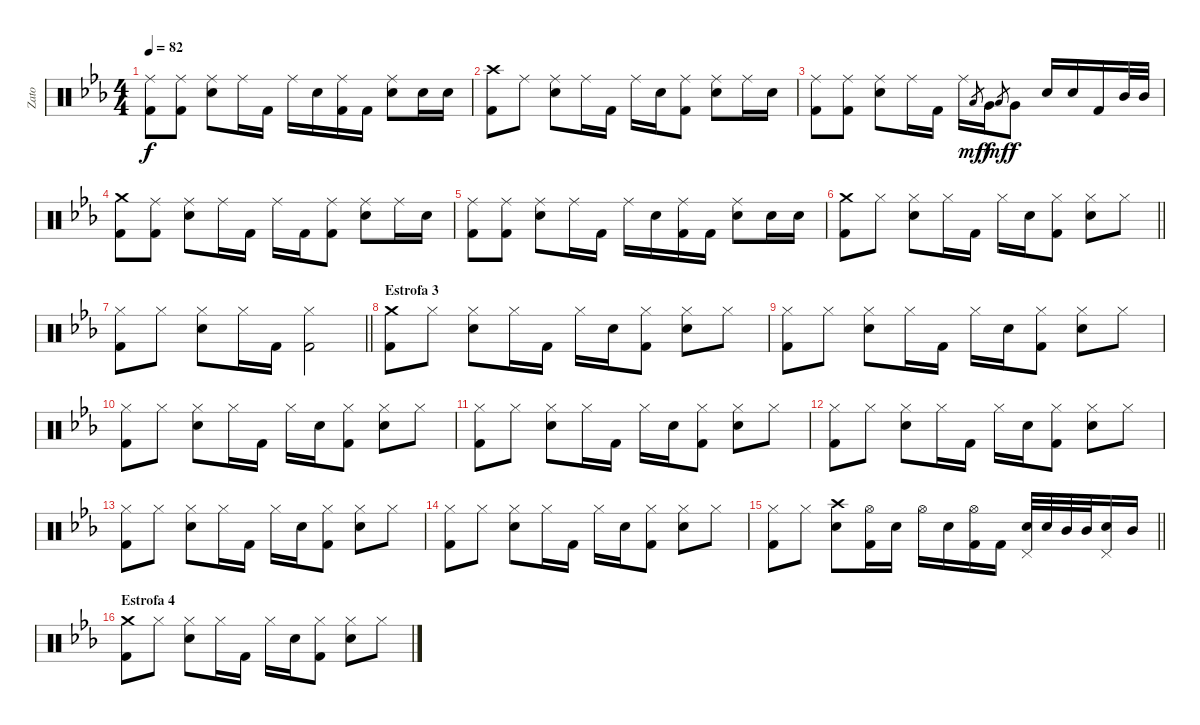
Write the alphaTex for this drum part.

\track ("Zato" "Zato") {instrument percussion}
\staff {score}
\articulation defaults
\ts (4 4)
\tempo 82
\clef neutral
\ks cminor
("Ride (middle)" "Kick (hit) 2").8{dy f} ("Ride (middle)" "Kick (hit) 2").8 ("Ride (middle)" "Electric Snare (hit)").8 "Ride (middle)".16 "Kick (hit) 2".16 "Ride (middle)".16 "Electric Snare (hit)".16 ("Ride (middle)" "Kick (hit) 2").16 "Kick (hit) 2".16 ("Ride (middle)" "Electric Snare (hit)").8 "Electric Snare (hit)".16 "Electric Snare (hit)".16 |
("Crash high (hit)" "Kick (hit) 2").8 "Ride (middle)".8 ("Ride (middle)" "Electric Snare (hit)").8 "Ride (middle)".16 "Kick (hit) 2".16 "Ride (middle)".16 "Electric Snare (hit)".16 ("Ride (middle)" "Kick (hit) 2").8 ("Ride (middle)" "Electric Snare (hit)").8 "Ride (middle)".16 "Electric Snare (hit)".16 |
("Ride (middle)" "Kick (hit) 2").8 ("Ride (middle)" "Kick (hit) 2").8 ("Ride (middle)" "Electric Snare (hit)").8 "Ride (middle)".16 "Kick (hit) 2".16 "Ride (middle)".16 "Low Tom (hit)".8{gr dy mf} "Very Low Tom (hit)".16{dy f} "Low Tom (hit)".8{gr dy mf} "Very Low Tom (hit)".8{dy f} "Electric Snare (hit)".16 "Electric Snare (hit)".16 "Kick (hit) 2".16 "Mid Tom (hit)".32 "Mid Tom (hit)".32 |
("Crash medium (hit)" "Kick (hit) 2").8 ("Ride (middle)" "Kick (hit) 2").8 ("Ride (middle)" "Electric Snare (hit)").8 "Ride (middle)".16 "Kick (hit) 2".16 "Ride (middle)".16 "Kick (hit) 2".16 ("Ride (middle)" "Kick (hit) 2").8 ("Ride (middle)" "Electric Snare (hit)").8 "Ride (middle)".16 "Electric Snare (hit)".16 |
("Ride (middle)" "Kick (hit) 2").8 ("Ride (middle)" "Kick (hit) 2").8 ("Ride (middle)" "Electric Snare (hit)").8 "Ride (middle)".16 "Kick (hit) 2".16 "Ride (middle)".16 "Electric Snare (hit)".16 ("Ride (middle)" "Kick (hit) 2").16 "Kick (hit) 2".16 ("Ride (middle)" "Electric Snare (hit)").8 "Electric Snare (hit)".16 "Electric Snare (hit)".16 |
\barLineRight lightlight
("Crash medium (hit)" "Kick (hit) 2").8{volume 13} "Hi-Hat (closed)".8 ("Hi-Hat (closed)" "Electric Snare (hit)").8 "Hi-Hat (closed)".16 "Kick (hit) 2".16 "Hi-Hat (closed)".16 "Electric Snare (hit)".16 ("Hi-Hat (closed)" "Kick (hit) 2").8 ("Hi-Hat (closed)" "Electric Snare (hit)").8 "Hi-Hat (closed)".8 |
\barLineRight lightlight
("Hi-Hat (closed)" "Kick (hit) 2").8 "Hi-Hat (closed)".8 ("Hi-Hat (closed)" "Electric Snare (hit)").8 "Hi-Hat (closed)".16 "Kick (hit) 2".16 ("Hi-Hat (closed)" "Kick (hit) 2").2 |
\section ("" "Estrofa 3")
("Crash medium (hit)" "Kick (hit) 2").8{volume 13} "Hi-Hat (closed)".8 ("Hi-Hat (closed)" "Electric Snare (hit)").8 "Hi-Hat (closed)".16 "Kick (hit) 2".16 "Hi-Hat (closed)".16 "Electric Snare (hit)".16 ("Hi-Hat (closed)" "Kick (hit) 2").8 ("Hi-Hat (closed)" "Electric Snare (hit)").8 "Hi-Hat (closed)".8 |
("Hi-Hat (closed)" "Kick (hit) 2").8 "Hi-Hat (closed)".8 ("Hi-Hat (closed)" "Electric Snare (hit)").8 "Hi-Hat (closed)".16 "Kick (hit) 2".16 "Hi-Hat (closed)".16 "Electric Snare (hit)".16 ("Hi-Hat (closed)" "Kick (hit) 2").8 ("Hi-Hat (closed)" "Electric Snare (hit)").8 "Hi-Hat (closed)".8 |
("Hi-Hat (closed)" "Kick (hit) 2").8 "Hi-Hat (closed)".8 ("Hi-Hat (closed)" "Electric Snare (hit)").8 "Hi-Hat (closed)".16 "Kick (hit) 2".16 "Hi-Hat (closed)".16 "Electric Snare (hit)".16 ("Hi-Hat (closed)" "Kick (hit) 2").8 ("Hi-Hat (closed)" "Electric Snare (hit)").8 "Hi-Hat (closed)".8 |
("Hi-Hat (closed)" "Kick (hit) 2").8 "Hi-Hat (closed)".8 ("Hi-Hat (closed)" "Electric Snare (hit)").8 "Hi-Hat (closed)".16 "Kick (hit) 2".16 "Hi-Hat (closed)".16 "Electric Snare (hit)".16 ("Hi-Hat (closed)" "Kick (hit) 2").8 ("Hi-Hat (closed)" "Electric Snare (hit)").8 "Hi-Hat (closed)".8 |
("Hi-Hat (closed)" "Kick (hit) 2").8 "Hi-Hat (closed)".8 ("Hi-Hat (closed)" "Electric Snare (hit)").8 "Hi-Hat (closed)".16 "Kick (hit) 2".16 "Hi-Hat (closed)".16 "Electric Snare (hit)".16 ("Hi-Hat (closed)" "Kick (hit) 2").8 ("Hi-Hat (closed)" "Electric Snare (hit)").8 "Hi-Hat (closed)".8 |
("Hi-Hat (closed)" "Kick (hit) 2").8 "Hi-Hat (closed)".8 ("Hi-Hat (closed)" "Electric Snare (hit)").8 "Hi-Hat (closed)".16 "Kick (hit) 2".16 "Hi-Hat (closed)".16 "Electric Snare (hit)".16 ("Hi-Hat (closed)" "Kick (hit) 2").8 ("Hi-Hat (closed)" "Electric Snare (hit)").8 "Hi-Hat (closed)".8 |
("Hi-Hat (closed)" "Kick (hit) 2").8 "Hi-Hat (closed)".8 ("Hi-Hat (closed)" "Electric Snare (hit)").8 "Hi-Hat (closed)".16 "Kick (hit) 2".16 "Hi-Hat (closed)".16 "Electric Snare (hit)".16 ("Hi-Hat (closed)" "Kick (hit) 2").8 ("Hi-Hat (closed)" "Electric Snare (hit)").8 "Hi-Hat (closed)".8 |
\barLineRight lightlight
("Hi-Hat (closed)" "Kick (hit) 2").8 "Hi-Hat (closed)".8 ("Crash high (hit)" "Electric Snare (hit)").8 ("Hi-Hat (open)" "Kick (hit) 2").16 "Electric Snare (hit)".16 "Hi-Hat (open)".16 "Electric Snare (hit)".16 ("Hi-Hat (open)" "Kick (hit) 2").16 "Kick (hit) 2".16 ("Electric Snare (hit)" "Pedal Hi-Hat (hit)").32 "Electric Snare (hit)".32 "Mid Tom (hit)".32 "Mid Tom (hit)".32 ("Electric Snare (hit)" "Pedal Hi-Hat (hit)").16 "Mid Tom (hit)".16 |
\section ("" "Estrofa 4")
("Crash medium (hit)" "Kick (hit) 2").8{volume 13} "Hi-Hat (closed)".8 ("Hi-Hat (closed)" "Electric Snare (hit)").8 "Hi-Hat (closed)".16 "Kick (hit) 2".16 "Hi-Hat (closed)".16 "Electric Snare (hit)".16 ("Hi-Hat (closed)" "Kick (hit) 2").8 ("Hi-Hat (closed)" "Electric Snare (hit)").8 "Hi-Hat (closed)".8
